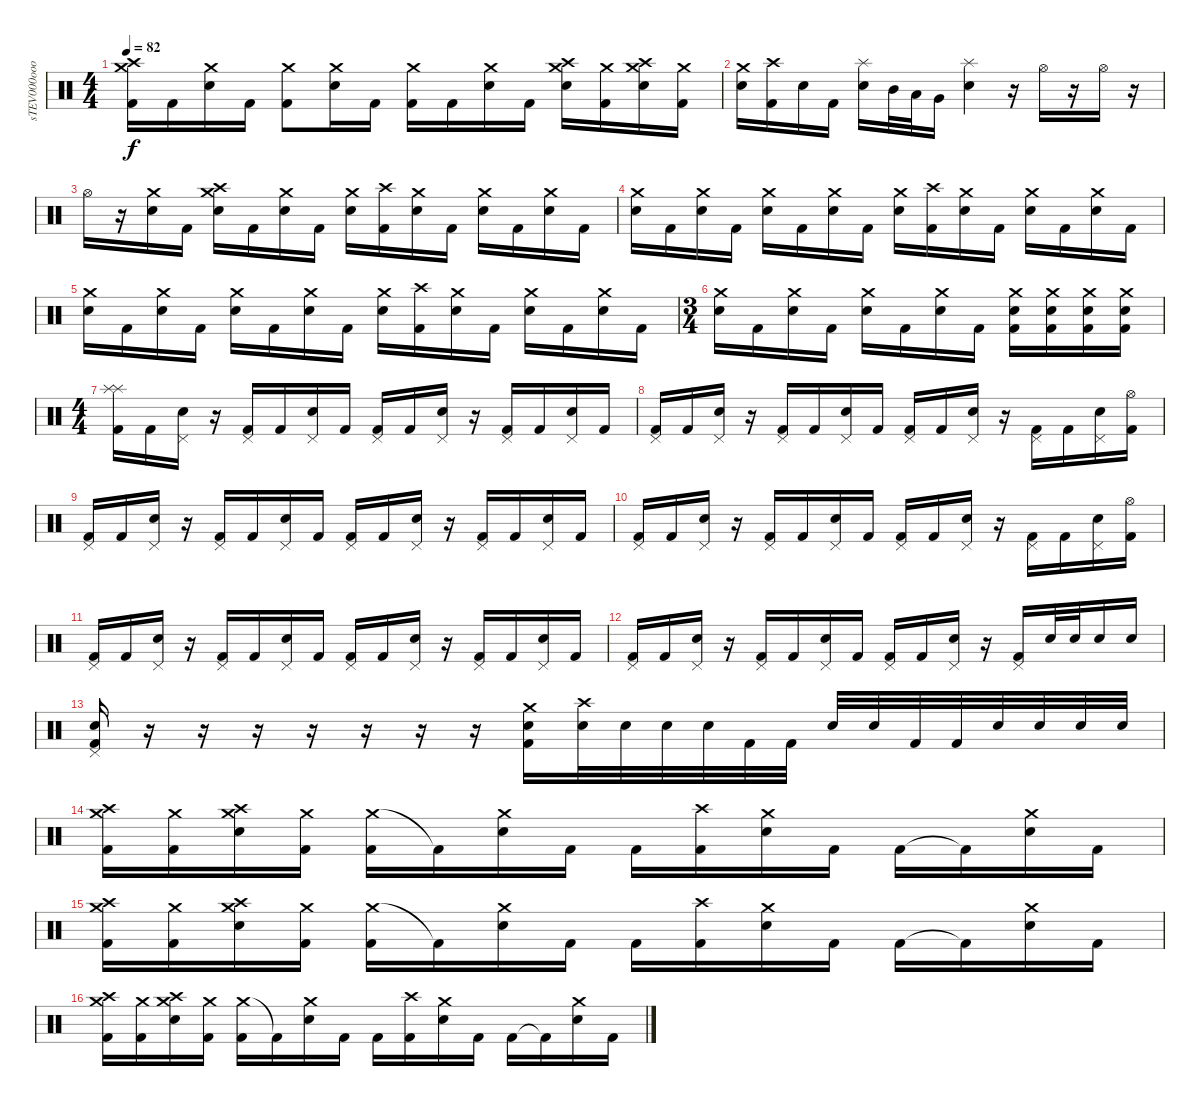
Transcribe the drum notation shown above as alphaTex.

\track ("sTEV000oooooooooOOOO 32" "sTEV000ooo") {instrument percussion}
\staff {score}
\articulation defaults
\ts (4 4)
\tempo 82
\clef neutral
\ks c
("Crash high (hit)" "Crash medium (hit)" "Kick (hit) 2").16{dy f} "Kick (hit) 2".16 ("Crash medium (hit)" "Electric Snare (hit)").16 "Kick (hit) 2".16 ("Crash medium (hit)" "Kick (hit) 2").8 ("Crash medium (hit)" "Electric Snare (hit)").16 "Kick (hit) 2".16 ("Crash medium (hit)" "Kick (hit) 2").16 "Kick (hit) 2".16 ("Crash medium (hit)" "Electric Snare (hit)").16 "Kick (hit) 2".16 ("Crash high (hit)" "Crash medium (hit)" "Electric Snare (hit)").16 ("Crash medium (hit)" "Kick (hit) 2").16 ("Crash medium (hit)" "Crash high (hit)" "Electric Snare (hit)").16 ("Crash medium (hit)" "Kick (hit) 2").16 |
("Crash medium (hit)" "Electric Snare (hit)").16 ("Crash high (hit)" "Kick (hit) 2").16 "Electric Snare (hit)".16 "Kick (hit) 2".16 ("Splash (hit)" "Electric Snare (hit)").16 "Mid Tom (hit)".32 "Low Tom (hit)".32 "Very Low Tom (hit)".16 ("Splash (hit)" "Electric Snare (hit)").4 r.16 "Hi-Hat (open)".16 r.16 "Hi-Hat (open)".16 r.16 |
"Hi-Hat (open)".16 r.16 ("Crash medium (hit)" "Electric Snare (hit)").16 "Kick (hit) 2".16 ("Crash high (hit)" "Crash medium (hit)" "Electric Snare (hit)").16 "Kick (hit) 2".16 ("Crash medium (hit)" "Electric Snare (hit)").16 "Kick (hit) 2".16 ("Crash medium (hit)" "Electric Snare (hit)").16 ("Crash high (hit)" "Kick (hit) 2").16 ("Crash medium (hit)" "Electric Snare (hit)").16 "Kick (hit) 2".16 ("Crash medium (hit)" "Electric Snare (hit)").16 "Kick (hit) 2".16 ("Crash medium (hit)" "Electric Snare (hit)").16 "Kick (hit) 2".16 |
("Crash medium (hit)" "Electric Snare (hit)").16 "Kick (hit) 2".16 ("Crash medium (hit)" "Electric Snare (hit)").16 "Kick (hit) 2".16 ("Crash medium (hit)" "Electric Snare (hit)").16 "Kick (hit) 2".16 ("Crash medium (hit)" "Electric Snare (hit)").16 "Kick (hit) 2".16 ("Crash medium (hit)" "Electric Snare (hit)").16 ("Crash high (hit)" "Kick (hit) 2").16 ("Crash medium (hit)" "Electric Snare (hit)").16 "Kick (hit) 2".16 ("Crash medium (hit)" "Electric Snare (hit)").16 "Kick (hit) 2".16 ("Crash medium (hit)" "Electric Snare (hit)").16 "Kick (hit) 2".16 |
("Crash medium (hit)" "Electric Snare (hit)").16 "Kick (hit) 2".16 ("Crash medium (hit)" "Electric Snare (hit)").16 "Kick (hit) 2".16 ("Crash medium (hit)" "Electric Snare (hit)").16 "Kick (hit) 2".16 ("Crash medium (hit)" "Electric Snare (hit)").16 "Kick (hit) 2".16 ("Crash medium (hit)" "Electric Snare (hit)").16 ("Crash high (hit)" "Kick (hit) 2").16 ("Crash medium (hit)" "Electric Snare (hit)").16 "Kick (hit) 2".16 ("Crash medium (hit)" "Electric Snare (hit)").16 "Kick (hit) 2".16 ("Crash medium (hit)" "Electric Snare (hit)").16 "Kick (hit) 2".16 |
\ts (3 4)
("Crash medium (hit)" "Electric Snare (hit)").16 "Kick (hit) 2".16 ("Crash medium (hit)" "Electric Snare (hit)").16 "Kick (hit) 2".16 ("Crash medium (hit)" "Electric Snare (hit)").16 "Kick (hit) 2".16 ("Crash medium (hit)" "Electric Snare (hit)").16 "Kick (hit) 2".16 ("Crash medium (hit)" "Kick (hit) 2" "Electric Snare (hit)").16 ("Crash medium (hit)" "Kick (hit) 2" "Electric Snare (hit)").16 ("Crash medium (hit)" "Kick (hit) 2" "Electric Snare (hit)").16 ("Crash medium (hit)" "Kick (hit) 2" "Electric Snare (hit)").16 |
\ts (4 4)
("Splash (hit)" "Splash (hit)" "Kick (hit) 2").16 "Kick (hit) 2".16 ("Pedal Hi-Hat (hit)" "Electric Snare (hit)").16 r.16 ("Pedal Hi-Hat (hit)" "Kick (hit) 2").16 "Kick (hit) 2".16 ("Pedal Hi-Hat (hit)" "Electric Snare (hit)").16 "Kick (hit) 2".16 ("Pedal Hi-Hat (hit)" "Kick (hit) 2").16 "Kick (hit) 2".16 ("Pedal Hi-Hat (hit)" "Electric Snare (hit)").16 r.16 ("Pedal Hi-Hat (hit)" "Kick (hit) 2").16 "Kick (hit) 2".16 ("Pedal Hi-Hat (hit)" "Electric Snare (hit)").16 "Kick (hit) 2".16 |
("Pedal Hi-Hat (hit)" "Kick (hit) 2").16 "Kick (hit) 2".16 ("Pedal Hi-Hat (hit)" "Electric Snare (hit)").16 r.16 ("Pedal Hi-Hat (hit)" "Kick (hit) 2").16 "Kick (hit) 2".16 ("Pedal Hi-Hat (hit)" "Electric Snare (hit)").16 "Kick (hit) 2".16 ("Pedal Hi-Hat (hit)" "Kick (hit) 2").16 "Kick (hit) 2".16 ("Pedal Hi-Hat (hit)" "Electric Snare (hit)").16 r.16 ("Pedal Hi-Hat (hit)" "Kick (hit) 2").16 "Kick (hit) 2".16 ("Pedal Hi-Hat (hit)" "Electric Snare (hit)").16 ("Hi-Hat (open)" "Kick (hit) 2").16 |
("Pedal Hi-Hat (hit)" "Kick (hit) 2").16 "Kick (hit) 2".16 ("Pedal Hi-Hat (hit)" "Electric Snare (hit)").16 r.16 ("Pedal Hi-Hat (hit)" "Kick (hit) 2").16 "Kick (hit) 2".16 ("Pedal Hi-Hat (hit)" "Electric Snare (hit)").16 "Kick (hit) 2".16 ("Pedal Hi-Hat (hit)" "Kick (hit) 2").16 "Kick (hit) 2".16 ("Pedal Hi-Hat (hit)" "Electric Snare (hit)").16 r.16 ("Pedal Hi-Hat (hit)" "Kick (hit) 2").16 "Kick (hit) 2".16 ("Pedal Hi-Hat (hit)" "Electric Snare (hit)").16 "Kick (hit) 2".16 |
("Pedal Hi-Hat (hit)" "Kick (hit) 2").16 "Kick (hit) 2".16 ("Pedal Hi-Hat (hit)" "Electric Snare (hit)").16 r.16 ("Pedal Hi-Hat (hit)" "Kick (hit) 2").16 "Kick (hit) 2".16 ("Pedal Hi-Hat (hit)" "Electric Snare (hit)").16 "Kick (hit) 2".16 ("Pedal Hi-Hat (hit)" "Kick (hit) 2").16 "Kick (hit) 2".16 ("Pedal Hi-Hat (hit)" "Electric Snare (hit)").16 r.16 ("Pedal Hi-Hat (hit)" "Kick (hit) 2").16 "Kick (hit) 2".16 ("Pedal Hi-Hat (hit)" "Electric Snare (hit)").16 ("Hi-Hat (open)" "Kick (hit) 2").16 |
("Pedal Hi-Hat (hit)" "Kick (hit) 2").16 "Kick (hit) 2".16 ("Pedal Hi-Hat (hit)" "Electric Snare (hit)").16 r.16 ("Pedal Hi-Hat (hit)" "Kick (hit) 2").16 "Kick (hit) 2".16 ("Pedal Hi-Hat (hit)" "Electric Snare (hit)").16 "Kick (hit) 2".16 ("Pedal Hi-Hat (hit)" "Kick (hit) 2").16 "Kick (hit) 2".16 ("Pedal Hi-Hat (hit)" "Electric Snare (hit)").16 r.16 ("Pedal Hi-Hat (hit)" "Kick (hit) 2").16 "Kick (hit) 2".16 ("Pedal Hi-Hat (hit)" "Electric Snare (hit)").16 "Kick (hit) 2".16 |
("Pedal Hi-Hat (hit)" "Kick (hit) 2").16 "Kick (hit) 2".16 ("Pedal Hi-Hat (hit)" "Electric Snare (hit)").16 r.16 ("Pedal Hi-Hat (hit)" "Kick (hit) 2").16 "Kick (hit) 2".16 ("Pedal Hi-Hat (hit)" "Electric Snare (hit)").16 "Kick (hit) 2".16 ("Pedal Hi-Hat (hit)" "Kick (hit) 2").16 "Kick (hit) 2".16 ("Pedal Hi-Hat (hit)" "Electric Snare (hit)").16 r.16 ("Pedal Hi-Hat (hit)" "Kick (hit) 2").16 "Electric Snare (hit)".32 "Electric Snare (hit)".32 "Electric Snare (hit)".16 "Electric Snare (hit)".16 |
("Pedal Hi-Hat (hit)" "Kick (hit) 2" "Electric Snare (hit)").16 r.16 r.16 r.16 r.16 r.16 r.16 r.16 ("Crash medium (hit)" "Kick (hit) 2" "Electric Snare (hit)").16 ("Crash high (hit)" "Electric Snare (hit)").32 "Electric Snare (hit)".32 "Electric Snare (hit)".32 "Electric Snare (hit)".32 "Kick (hit) 2".32 "Kick (hit) 2".32 "Electric Snare (hit)".32 "Electric Snare (hit)".32 "Kick (hit) 2".32 "Kick (hit) 2".32 "Electric Snare (hit)".32 "Electric Snare (hit)".32 "Electric Snare (hit)".32 "Electric Snare (hit)".32 |
("Crash medium (hit)" "Crash high (hit)" "Kick (hit) 2").16 ("Crash medium (hit)" "Kick (hit) 2").16 ("Crash medium (hit)" "Crash high (hit)" "Electric Snare (hit)").16 ("Crash medium (hit)" "Kick (hit) 2").16 ("Crash medium (hit)" "Kick (hit) 2").16 "Kick (hit) 2"{t}.16 ("Crash medium (hit)" "Electric Snare (hit)").16 "Kick (hit) 2".16 "Kick (hit) 2".16 ("Crash high (hit)" "Kick (hit) 2").16 ("Crash medium (hit)" "Electric Snare (hit)").16 "Kick (hit) 2".16 "Kick (hit) 2".16 "Kick (hit) 2"{t}.16 ("Crash medium (hit)" "Electric Snare (hit)").16 "Kick (hit) 2".16 |
("Crash medium (hit)" "Crash high (hit)" "Kick (hit) 2").16 ("Crash medium (hit)" "Kick (hit) 2").16 ("Crash medium (hit)" "Crash high (hit)" "Electric Snare (hit)").16 ("Crash medium (hit)" "Kick (hit) 2").16 ("Crash medium (hit)" "Kick (hit) 2").16 "Kick (hit) 2"{t}.16 ("Crash medium (hit)" "Electric Snare (hit)").16 "Kick (hit) 2".16 "Kick (hit) 2".16 ("Crash high (hit)" "Kick (hit) 2").16 ("Crash medium (hit)" "Electric Snare (hit)").16 "Kick (hit) 2".16 "Kick (hit) 2".16 "Kick (hit) 2"{t}.16 ("Crash medium (hit)" "Electric Snare (hit)").16 "Kick (hit) 2".16 |
("Crash medium (hit)" "Crash high (hit)" "Kick (hit) 2").16 ("Crash medium (hit)" "Kick (hit) 2").16 ("Crash medium (hit)" "Crash high (hit)" "Electric Snare (hit)").16 ("Crash medium (hit)" "Kick (hit) 2").16 ("Crash medium (hit)" "Kick (hit) 2").16 "Kick (hit) 2"{t}.16 ("Crash medium (hit)" "Electric Snare (hit)").16 "Kick (hit) 2".16 "Kick (hit) 2".16 ("Crash high (hit)" "Kick (hit) 2").16 ("Crash medium (hit)" "Electric Snare (hit)").16 "Kick (hit) 2".16 "Kick (hit) 2".16 "Kick (hit) 2"{t}.16 ("Crash medium (hit)" "Electric Snare (hit)").16 "Kick (hit) 2".16
